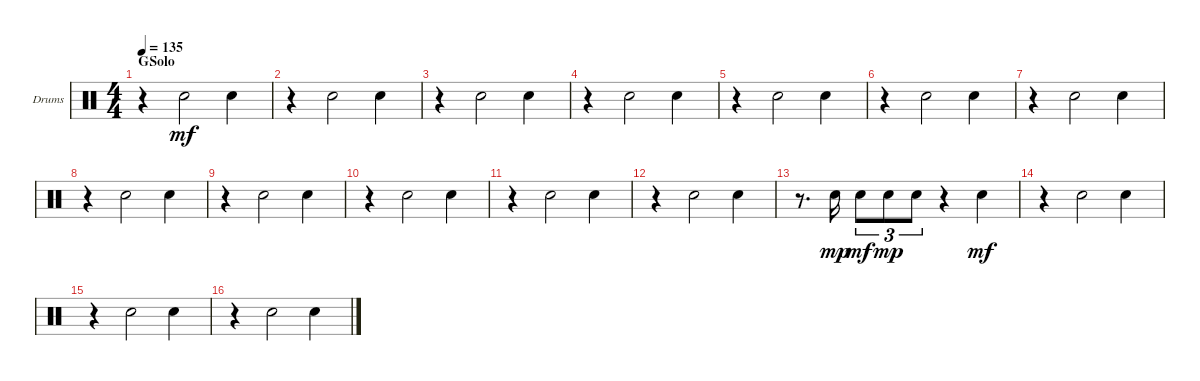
\bracketExtendMode groupsimilarinstruments
\firstSystemTrackNameOrientation horizontal
\otherSystemsTrackNameOrientation horizontal
\track ("Snare" "Drums") {instrument percussion}
\staff {score}
\articulation defaults
\ts (4 4)
\section ("" "GSolo")
\tempo 135
\clef neutral
\ks c
r.4{dy mf} "Snare (hit) 2".2 "Snare (hit) 2".4 |
r.4 "Snare (hit) 2".2 "Snare (hit) 2".4 |
r.4 "Snare (hit) 2".2 "Snare (hit) 2".4 |
r.4 "Snare (hit) 2".2 "Snare (hit) 2".4 |
r.4 "Snare (hit) 2".2 "Snare (hit) 2".4 |
r.4 "Snare (hit) 2".2 "Snare (hit) 2".4 |
r.4 "Snare (hit) 2".2 "Snare (hit) 2".4 |
r.4 "Snare (hit) 2".2 "Snare (hit) 2".4 |
r.4 "Snare (hit) 2".2 "Snare (hit) 2".4 |
r.4 "Snare (hit) 2".2 "Snare (hit) 2".4 |
r.4 "Snare (hit) 2".2 "Snare (hit) 2".4 |
r.4 "Snare (hit) 2".2 "Snare (hit) 2".4 |
r.8{d} "Snare (hit) 2".16{dy mp} "Snare (hit) 2".8{tu (3 2) dy mf} "Snare (hit) 2".8{tu (3 2) dy mp} "Snare (hit) 2".8{tu (3 2)} r.4 "Snare (hit) 2".4{dy mf} |
r.4 "Snare (hit) 2".2 "Snare (hit) 2".4 |
r.4 "Snare (hit) 2".2 "Snare (hit) 2".4 |
r.4 "Snare (hit) 2".2 "Snare (hit) 2".4
